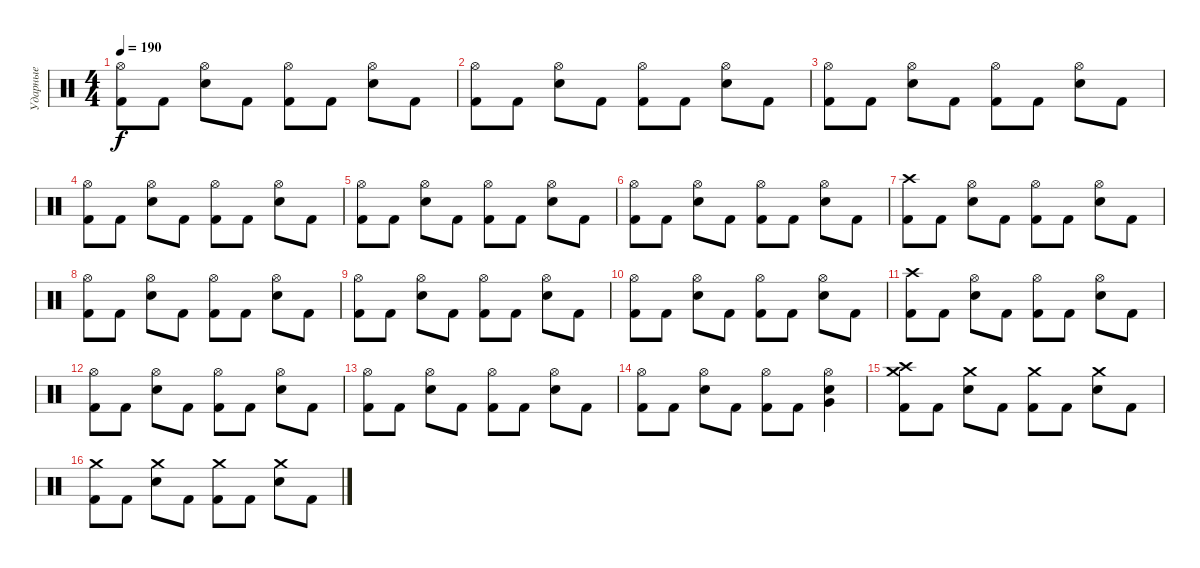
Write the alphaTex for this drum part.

\track ("Ударные" "Ударные") {instrument percussion}
\staff {score}
\articulation defaults
\ts (4 4)
\tempo 190
\clef neutral
\ks c
("Hi-Hat (open)" "Kick (hit) 2").8{dy f} "Kick (hit) 2".8 ("Hi-Hat (open)" "Electric Snare (hit)").8 "Kick (hit) 2".8 ("Hi-Hat (open)" "Kick (hit) 2").8 "Kick (hit) 2".8 ("Hi-Hat (open)" "Electric Snare (hit)").8 "Kick (hit) 2".8 |
("Hi-Hat (open)" "Kick (hit) 2").8 "Kick (hit) 2".8 ("Hi-Hat (open)" "Electric Snare (hit)").8 "Kick (hit) 2".8 ("Hi-Hat (open)" "Kick (hit) 2").8 "Kick (hit) 2".8 ("Hi-Hat (open)" "Electric Snare (hit)").8 "Kick (hit) 2".8 |
("Hi-Hat (open)" "Kick (hit) 2").8 "Kick (hit) 2".8 ("Hi-Hat (open)" "Electric Snare (hit)").8 "Kick (hit) 2".8 ("Hi-Hat (open)" "Kick (hit) 2").8 "Kick (hit) 2".8 ("Hi-Hat (open)" "Electric Snare (hit)").8 "Kick (hit) 2".8 |
("Hi-Hat (open)" "Kick (hit) 2").8 "Kick (hit) 2".8 ("Hi-Hat (open)" "Electric Snare (hit)").8 "Kick (hit) 2".8 ("Hi-Hat (open)" "Kick (hit) 2").8 "Kick (hit) 2".8 ("Hi-Hat (open)" "Electric Snare (hit)").8 "Kick (hit) 2".8 |
("Hi-Hat (open)" "Kick (hit) 2").8 "Kick (hit) 2".8 ("Hi-Hat (open)" "Electric Snare (hit)").8 "Kick (hit) 2".8 ("Hi-Hat (open)" "Kick (hit) 2").8 "Kick (hit) 2".8 ("Hi-Hat (open)" "Electric Snare (hit)").8 "Kick (hit) 2".8 |
("Hi-Hat (open)" "Kick (hit) 2").8 "Kick (hit) 2".8 ("Hi-Hat (open)" "Electric Snare (hit)").8 "Kick (hit) 2".8 ("Hi-Hat (open)" "Kick (hit) 2").8 "Kick (hit) 2".8 ("Hi-Hat (open)" "Electric Snare (hit)").8 "Kick (hit) 2".8 |
("Crash high (hit)" "Kick (hit) 2").8 "Kick (hit) 2".8 ("Hi-Hat (open)" "Electric Snare (hit)").8 "Kick (hit) 2".8 ("Hi-Hat (open)" "Kick (hit) 2").8 "Kick (hit) 2".8 ("Hi-Hat (open)" "Electric Snare (hit)").8 "Kick (hit) 2".8 |
("Hi-Hat (open)" "Kick (hit) 2").8 "Kick (hit) 2".8 ("Hi-Hat (open)" "Electric Snare (hit)").8 "Kick (hit) 2".8 ("Hi-Hat (open)" "Kick (hit) 2").8 "Kick (hit) 2".8 ("Hi-Hat (open)" "Electric Snare (hit)").8 "Kick (hit) 2".8 |
("Hi-Hat (open)" "Kick (hit) 2").8 "Kick (hit) 2".8 ("Hi-Hat (open)" "Electric Snare (hit)").8 "Kick (hit) 2".8 ("Hi-Hat (open)" "Kick (hit) 2").8 "Kick (hit) 2".8 ("Hi-Hat (open)" "Electric Snare (hit)").8 "Kick (hit) 2".8 |
("Hi-Hat (open)" "Kick (hit) 2").8 "Kick (hit) 2".8 ("Hi-Hat (open)" "Electric Snare (hit)").8 "Kick (hit) 2".8 ("Hi-Hat (open)" "Kick (hit) 2").8 "Kick (hit) 2".8 ("Hi-Hat (open)" "Electric Snare (hit)").8 "Kick (hit) 2".8 |
("Crash high (hit)" "Kick (hit) 2").8 "Kick (hit) 2".8 ("Hi-Hat (open)" "Electric Snare (hit)").8 "Kick (hit) 2".8 ("Hi-Hat (open)" "Kick (hit) 2").8 "Kick (hit) 2".8 ("Hi-Hat (open)" "Electric Snare (hit)").8 "Kick (hit) 2".8 |
("Hi-Hat (open)" "Kick (hit) 2").8 "Kick (hit) 2".8 ("Hi-Hat (open)" "Electric Snare (hit)").8 "Kick (hit) 2".8 ("Hi-Hat (open)" "Kick (hit) 2").8 "Kick (hit) 2".8 ("Hi-Hat (open)" "Electric Snare (hit)").8 "Kick (hit) 2".8 |
("Hi-Hat (open)" "Kick (hit) 2").8 "Kick (hit) 2".8 ("Hi-Hat (open)" "Electric Snare (hit)").8 "Kick (hit) 2".8 ("Hi-Hat (open)" "Kick (hit) 2").8 "Kick (hit) 2".8 ("Hi-Hat (open)" "Electric Snare (hit)").8 "Kick (hit) 2".8 |
("Hi-Hat (open)" "Kick (hit) 2").8 "Kick (hit) 2".8 ("Hi-Hat (open)" "Electric Snare (hit)").8 "Kick (hit) 2".8 ("Hi-Hat (open)" "Kick (hit) 2").8 "Kick (hit) 2".8 ("Hi-Hat (open)" "Electric Snare (hit)" "Very Low Tom (hit)").4 |
("Crash high (hit)" "Crash medium (hit)" "Kick (hit) 2").8 "Kick (hit) 2".8 ("Crash medium (hit)" "Electric Snare (hit)").8 "Kick (hit) 2".8 ("Crash medium (hit)" "Kick (hit) 2").8 "Kick (hit) 2".8 ("Crash medium (hit)" "Electric Snare (hit)").8 "Kick (hit) 2".8 |
("Crash medium (hit)" "Kick (hit) 2").8 "Kick (hit) 2".8 ("Crash medium (hit)" "Electric Snare (hit)").8 "Kick (hit) 2".8 ("Crash medium (hit)" "Kick (hit) 2").8 "Kick (hit) 2".8 ("Crash medium (hit)" "Electric Snare (hit)").8 "Kick (hit) 2".8
